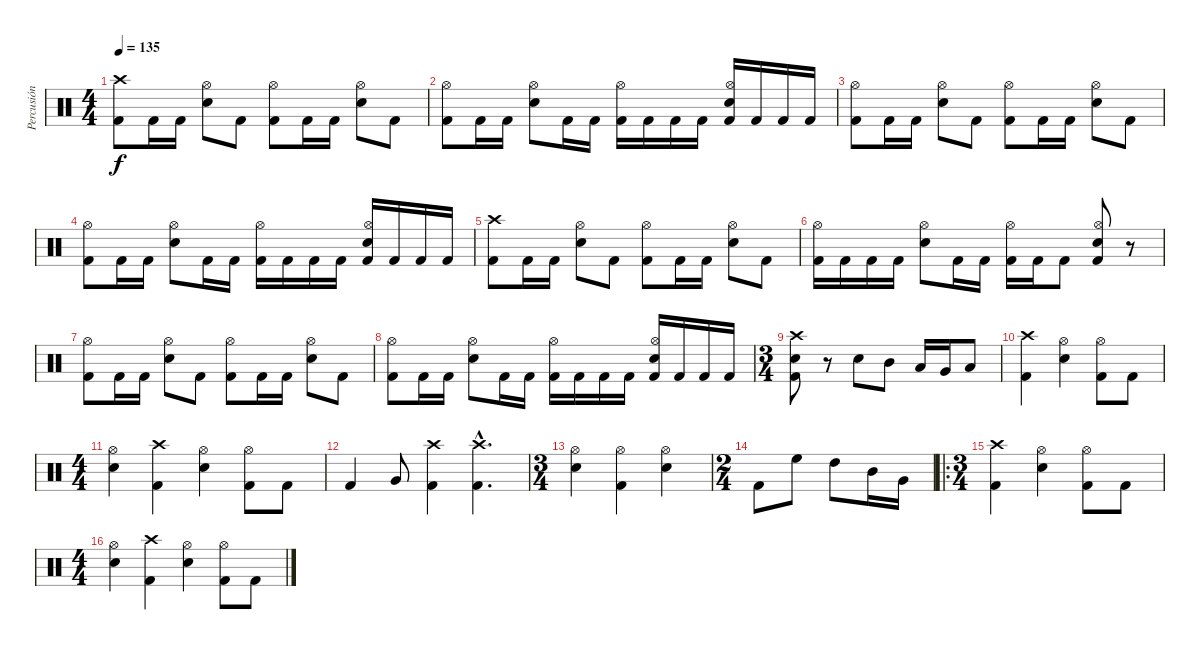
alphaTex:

\track ("Percusión" "Percusión") {instrument percussion}
\staff {score}
\articulation defaults
\ts (4 4)
\tempo 135
\clef neutral
\ks c
("Crash high (hit)" "Kick (hit) 2").8{dy f} "Kick (hit) 2".16 "Kick (hit) 2".16 ("Hi-Hat (open)" "Electric Snare (hit)").8 "Kick (hit) 2".8 ("Hi-Hat (open)" "Kick (hit) 2").8 "Kick (hit) 2".16 "Kick (hit) 2".16 ("Hi-Hat (open)" "Electric Snare (hit)").8 "Kick (hit) 2".8 |
("Hi-Hat (open)" "Kick (hit) 2").8 "Kick (hit) 2".16 "Kick (hit) 2".16 ("Hi-Hat (open)" "Electric Snare (hit)").8 "Kick (hit) 2".16 "Kick (hit) 2".16 ("Hi-Hat (open)" "Kick (hit) 2").16 "Kick (hit) 2".16 "Kick (hit) 2".16 "Kick (hit) 2".16 ("Hi-Hat (open)" "Electric Snare (hit)" "Kick (hit) 2").16 "Kick (hit) 2".16 "Kick (hit) 2".16 "Kick (hit) 2".16 |
("Hi-Hat (open)" "Kick (hit) 2").8 "Kick (hit) 2".16 "Kick (hit) 2".16 ("Hi-Hat (open)" "Electric Snare (hit)").8 "Kick (hit) 2".8 ("Hi-Hat (open)" "Kick (hit) 2").8 "Kick (hit) 2".16 "Kick (hit) 2".16 ("Hi-Hat (open)" "Electric Snare (hit)").8 "Kick (hit) 2".8 |
("Hi-Hat (open)" "Kick (hit) 2").8 "Kick (hit) 2".16 "Kick (hit) 2".16 ("Hi-Hat (open)" "Electric Snare (hit)").8 "Kick (hit) 2".16 "Kick (hit) 2".16 ("Hi-Hat (open)" "Kick (hit) 2").16 "Kick (hit) 2".16 "Kick (hit) 2".16 "Kick (hit) 2".16 ("Hi-Hat (open)" "Electric Snare (hit)" "Kick (hit) 2").16 "Kick (hit) 2".16 "Kick (hit) 2".16 "Kick (hit) 2".16 |
("Crash high (hit)" "Kick (hit) 2").8 "Kick (hit) 2".16 "Kick (hit) 2".16 ("Hi-Hat (open)" "Electric Snare (hit)").8 "Kick (hit) 2".8 ("Hi-Hat (open)" "Kick (hit) 2").8 "Kick (hit) 2".16 "Kick (hit) 2".16 ("Hi-Hat (open)" "Electric Snare (hit)").8 "Kick (hit) 2".8 |
("Hi-Hat (open)" "Kick (hit) 2").16 "Kick (hit) 2".16 "Kick (hit) 2".16 "Kick (hit) 2".16 ("Hi-Hat (open)" "Electric Snare (hit)").8 "Kick (hit) 2".16 "Kick (hit) 2".16 ("Hi-Hat (open)" "Kick (hit) 2").16 "Kick (hit) 2".16 "Kick (hit) 2".8 ("Hi-Hat (open)" "Electric Snare (hit)" "Kick (hit) 2").8 r.8 |
("Hi-Hat (open)" "Kick (hit) 2").8 "Kick (hit) 2".16 "Kick (hit) 2".16 ("Hi-Hat (open)" "Electric Snare (hit)").8 "Kick (hit) 2".8 ("Hi-Hat (open)" "Kick (hit) 2").8 "Kick (hit) 2".16 "Kick (hit) 2".16 ("Hi-Hat (open)" "Electric Snare (hit)").8 "Kick (hit) 2".8 |
("Hi-Hat (open)" "Kick (hit) 2").8 "Kick (hit) 2".16 "Kick (hit) 2".16 ("Hi-Hat (open)" "Electric Snare (hit)").8 "Kick (hit) 2".16 "Kick (hit) 2".16 ("Hi-Hat (open)" "Kick (hit) 2").16 "Kick (hit) 2".16 "Kick (hit) 2".16 "Kick (hit) 2".16 ("Hi-Hat (open)" "Electric Snare (hit)" "Kick (hit) 2").16 "Kick (hit) 2".16 "Kick (hit) 2".16 "Kick (hit) 2".16 |
\ts (3 4)
("Crash high (hit)" "Electric Snare (hit)" "Kick (hit) 2").8 r.8 "Electric Snare (hit)".8 "Mid Tom (hit)".8 "Low Tom (hit)".16 "Very Low Tom (hit)".16 "Low Floor Tom (hit)".8 |
("Crash high (hit)" "Kick (hit) 2").4 ("Hi-Hat (open)" "Electric Snare (hit)").4 ("Hi-Hat (open)" "Kick (hit) 2").8 "Kick (hit) 2".8 |
\ts (4 4)
("Hi-Hat (open)" "Electric Snare (hit)").4 ("Crash high (hit)" "Kick (hit) 2").4 ("Hi-Hat (open)" "Electric Snare (hit)").4 ("Hi-Hat (open)" "Kick (hit) 2").8 "Kick (hit) 2".8 |
"Kick (hit) 2".4 "Very Low Tom (hit)".8 ("Crash high (hit)" "Kick (hit) 2").4 ("Crash high (hit)"{hac} "Kick (hit) 2"{hac}).4{d} |
\ts (3 4)
("Hi-Hat (open)" "Electric Snare (hit)").4 ("Hi-Hat (open)" "Kick (hit) 2").4 ("Hi-Hat (open)" "Electric Snare (hit)").4 |
\ts (2 4)
"Kick (hit) 2".8 "High Floor Tom (hit)".8 "High Tom (hit)".8 "Mid Tom (hit)".16 "Very Low Tom (hit)".16 |
\ro
\ts (3 4)
("Crash high (hit)" "Kick (hit) 2").4 ("Hi-Hat (open)" "Electric Snare (hit)").4 ("Hi-Hat (open)" "Kick (hit) 2").8 "Kick (hit) 2".8 |
\ts (4 4)
("Hi-Hat (open)" "Electric Snare (hit)").4 ("Crash high (hit)" "Kick (hit) 2").4 ("Hi-Hat (open)" "Electric Snare (hit)").4 ("Hi-Hat (open)" "Kick (hit) 2").8 "Kick (hit) 2".8
